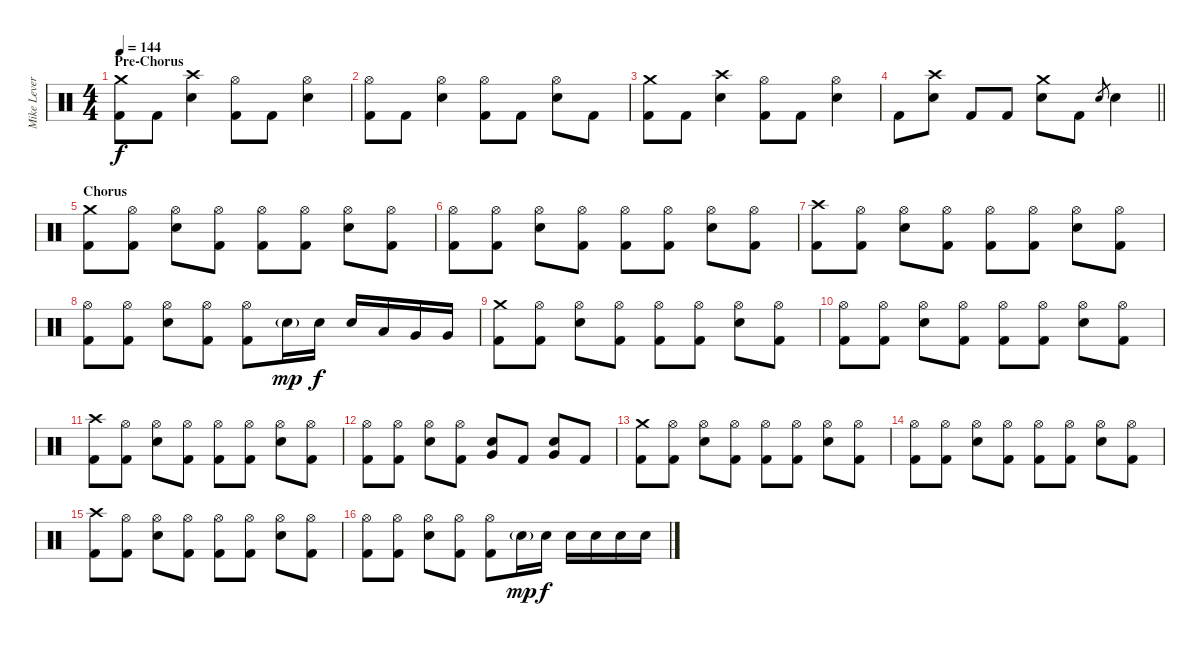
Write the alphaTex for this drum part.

\track ("Mike Leverence - Drums" "Mike Lever") {instrument percussion}
\staff {score}
\articulation defaults
\ts (4 4)
\section ("" "Pre-Chorus")
\tempo 144
\clef neutral
\ks c
("Crash medium (hit)" "Kick (hit) 2").8{dy f} "Kick (hit) 2".8 ("Crash high (hit)" "Electric Snare (hit)").4 ("Hi-Hat (open)" "Kick (hit) 2").8 "Kick (hit) 2".8 ("Hi-Hat (open)" "Electric Snare (hit)").4 |
("Hi-Hat (open)" "Kick (hit) 2").8 "Kick (hit) 2".8 ("Hi-Hat (open)" "Electric Snare (hit)").4 ("Hi-Hat (open)" "Kick (hit) 2").8 "Kick (hit) 2".8 ("Hi-Hat (open)" "Electric Snare (hit)").8 "Kick (hit) 2".8 |
("Crash medium (hit)" "Kick (hit) 2").8 "Kick (hit) 2".8 ("Crash high (hit)" "Electric Snare (hit)").4 ("Hi-Hat (open)" "Kick (hit) 2").8 "Kick (hit) 2".8 ("Hi-Hat (open)" "Electric Snare (hit)").4 |
\barLineRight lightlight "Kick (hit) 2".8
("Crash high (hit)" "Electric Snare (hit)").8 "Kick (hit) 2".8 "Kick (hit) 2".8 ("Crash medium (hit)" "Electric Snare (hit)").8 "Kick (hit) 2".8 "Electric Snare (hit)".8{gr} "Electric Snare (hit)".4 |
\section ("" "Chorus")
("Crash medium (hit)" "Kick (hit) 2").8 ("Hi-Hat (open)" "Kick (hit) 2").8 ("Hi-Hat (open)" "Electric Snare (hit)").8 ("Hi-Hat (open)" "Kick (hit) 2").8 ("Hi-Hat (open)" "Kick (hit) 2").8 ("Hi-Hat (open)" "Kick (hit) 2").8 ("Hi-Hat (open)" "Electric Snare (hit)").8 ("Hi-Hat (open)" "Kick (hit) 2").8 |
("Hi-Hat (open)" "Kick (hit) 2").8 ("Hi-Hat (open)" "Kick (hit) 2").8 ("Hi-Hat (open)" "Electric Snare (hit)").8 ("Hi-Hat (open)" "Kick (hit) 2").8 ("Hi-Hat (open)" "Kick (hit) 2").8 ("Hi-Hat (open)" "Kick (hit) 2").8 ("Hi-Hat (open)" "Electric Snare (hit)").8 ("Hi-Hat (open)" "Kick (hit) 2").8 |
("Crash high (hit)" "Kick (hit) 2").8 ("Hi-Hat (open)" "Kick (hit) 2").8 ("Hi-Hat (open)" "Electric Snare (hit)").8 ("Hi-Hat (open)" "Kick (hit) 2").8 ("Hi-Hat (open)" "Kick (hit) 2").8 ("Hi-Hat (open)" "Kick (hit) 2").8 ("Hi-Hat (open)" "Electric Snare (hit)").8 ("Hi-Hat (open)" "Kick (hit) 2").8 |
("Hi-Hat (open)" "Kick (hit) 2").8 ("Hi-Hat (open)" "Kick (hit) 2").8 ("Hi-Hat (open)" "Electric Snare (hit)").8 ("Hi-Hat (open)" "Kick (hit) 2").8 ("Hi-Hat (open)" "Kick (hit) 2").8 "Electric Snare (hit)"{g}.16{dy mp} "Electric Snare (hit)".16{dy f} "Electric Snare (hit)".16 "Low Tom (hit)".16 "Very Low Tom (hit)".16 "Very Low Tom (hit)".16 |
("Crash medium (hit)" "Kick (hit) 2").8 ("Hi-Hat (open)" "Kick (hit) 2").8 ("Hi-Hat (open)" "Electric Snare (hit)").8 ("Hi-Hat (open)" "Kick (hit) 2").8 ("Hi-Hat (open)" "Kick (hit) 2").8 ("Hi-Hat (open)" "Kick (hit) 2").8 ("Hi-Hat (open)" "Electric Snare (hit)").8 ("Hi-Hat (open)" "Kick (hit) 2").8 |
("Hi-Hat (open)" "Kick (hit) 2").8 ("Hi-Hat (open)" "Kick (hit) 2").8 ("Hi-Hat (open)" "Electric Snare (hit)").8 ("Hi-Hat (open)" "Kick (hit) 2").8 ("Hi-Hat (open)" "Kick (hit) 2").8 ("Hi-Hat (open)" "Kick (hit) 2").8 ("Hi-Hat (open)" "Electric Snare (hit)").8 ("Hi-Hat (open)" "Kick (hit) 2").8 |
("Crash high (hit)" "Kick (hit) 2").8 ("Hi-Hat (open)" "Kick (hit) 2").8 ("Hi-Hat (open)" "Electric Snare (hit)").8 ("Hi-Hat (open)" "Kick (hit) 2").8 ("Hi-Hat (open)" "Kick (hit) 2").8 ("Hi-Hat (open)" "Kick (hit) 2").8 ("Hi-Hat (open)" "Electric Snare (hit)").8 ("Hi-Hat (open)" "Kick (hit) 2").8 |
("Hi-Hat (open)" "Kick (hit) 2").8 ("Hi-Hat (open)" "Kick (hit) 2").8 ("Hi-Hat (open)" "Electric Snare (hit)").8 ("Hi-Hat (open)" "Kick (hit) 2").8 ("Very Low Tom (hit)" "Electric Snare (hit)").8 "Kick (hit) 2".8 ("Very Low Tom (hit)" "Electric Snare (hit)").8 "Kick (hit) 2".8 |
("Crash medium (hit)" "Kick (hit) 2").8 ("Hi-Hat (open)" "Kick (hit) 2").8 ("Hi-Hat (open)" "Electric Snare (hit)").8 ("Hi-Hat (open)" "Kick (hit) 2").8 ("Hi-Hat (open)" "Kick (hit) 2").8 ("Hi-Hat (open)" "Kick (hit) 2").8 ("Hi-Hat (open)" "Electric Snare (hit)").8 ("Hi-Hat (open)" "Kick (hit) 2").8 |
("Hi-Hat (open)" "Kick (hit) 2").8 ("Hi-Hat (open)" "Kick (hit) 2").8 ("Hi-Hat (open)" "Electric Snare (hit)").8 ("Hi-Hat (open)" "Kick (hit) 2").8 ("Hi-Hat (open)" "Kick (hit) 2").8 ("Hi-Hat (open)" "Kick (hit) 2").8 ("Hi-Hat (open)" "Electric Snare (hit)").8 ("Hi-Hat (open)" "Kick (hit) 2").8 |
("Crash high (hit)" "Kick (hit) 2").8 ("Hi-Hat (open)" "Kick (hit) 2").8 ("Hi-Hat (open)" "Electric Snare (hit)").8 ("Hi-Hat (open)" "Kick (hit) 2").8 ("Hi-Hat (open)" "Kick (hit) 2").8 ("Hi-Hat (open)" "Kick (hit) 2").8 ("Hi-Hat (open)" "Electric Snare (hit)").8 ("Hi-Hat (open)" "Kick (hit) 2").8 |
("Hi-Hat (open)" "Kick (hit) 2").8 ("Hi-Hat (open)" "Kick (hit) 2").8 ("Hi-Hat (open)" "Electric Snare (hit)").8 ("Hi-Hat (open)" "Kick (hit) 2").8 ("Hi-Hat (open)" "Kick (hit) 2").8 "Electric Snare (hit)"{g}.16{dy mp} "Electric Snare (hit)".16{dy f} "Electric Snare (hit)".16 "Electric Snare (hit)".16 "Electric Snare (hit)".16 "Electric Snare (hit)".16
